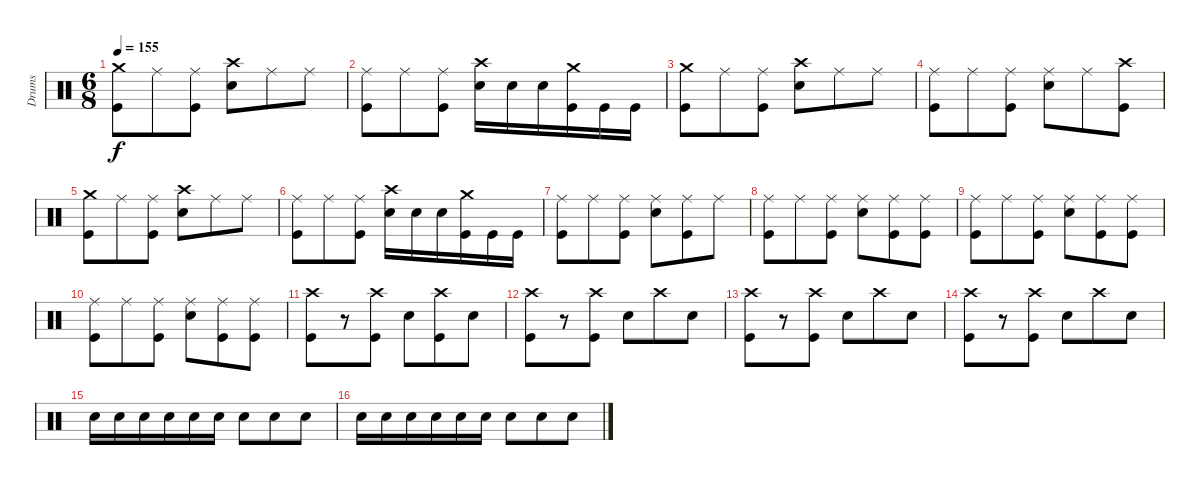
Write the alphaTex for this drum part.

\track ("Drums" "Drums") {instrument percussion}
\staff {score}
\articulation defaults
\ts (6 8)
\tempo 155
\clef neutral
\ks c
("Kick (hit)" "Crash medium (hit)").8{dy f} "Ride (middle)".8 ("Kick (hit)" "Ride (middle)").8 ("Snare (hit) 2" "Crash high (hit)").8 "Ride (middle)".8 "Ride (middle)".8 |
("Kick (hit)" "Ride (middle)").8 "Ride (middle)".8 ("Kick (hit)" "Ride (middle)").8 ("Snare (hit) 2" "Crash high (hit)").16 "Snare (hit) 2".16 "Snare (hit) 2".16 ("Kick (hit)" "Crash medium (hit)").16 "Kick (hit)".16 "Kick (hit)".16 |
("Kick (hit)" "Crash medium (hit)").8 "Ride (middle)".8 ("Kick (hit)" "Ride (middle)").8 ("Snare (hit) 2" "Crash high (hit)").8 "Ride (middle)".8 "Ride (middle)".8 |
("Kick (hit)" "Ride (middle)").8 "Ride (middle)".8 ("Kick (hit)" "Ride (middle)").8 ("Snare (hit) 2" "Ride (middle)").8 "Ride (middle)".8 ("Kick (hit)" "Crash high (hit)").8 |
("Kick (hit)" "Crash medium (hit)").8 "Ride (middle)".8 ("Kick (hit)" "Ride (middle)").8 ("Snare (hit) 2" "Crash high (hit)").8 "Ride (middle)".8 "Ride (middle)".8 |
("Kick (hit)" "Ride (middle)").8 "Ride (middle)".8 ("Kick (hit)" "Ride (middle)").8 ("Snare (hit) 2" "Crash high (hit)").16 "Snare (hit) 2".16 "Snare (hit) 2".16 ("Kick (hit)" "Crash medium (hit)").16 "Kick (hit)".16 "Kick (hit)".16 |
("Kick (hit)" "Ride (middle)").8 "Ride (middle)".8 ("Kick (hit)" "Ride (middle)").8 ("Snare (hit) 2" "Ride (middle)").8 ("Kick (hit)" "Ride (middle)").8 "Ride (middle)".8 |
("Kick (hit)" "Ride (middle)").8 "Ride (middle)".8 ("Kick (hit)" "Ride (middle)").8 ("Snare (hit) 2" "Ride (middle)").8 ("Kick (hit)" "Ride (middle)").8 ("Kick (hit)" "Ride (middle)").8 |
("Kick (hit)" "Ride (middle)").8 "Ride (middle)".8 ("Kick (hit)" "Ride (middle)").8 ("Snare (hit) 2" "Ride (middle)").8 ("Kick (hit)" "Ride (middle)").8 ("Kick (hit)" "Ride (middle)").8 |
("Kick (hit)" "Ride (middle)").8 "Ride (middle)".8 ("Kick (hit)" "Ride (middle)").8 ("Snare (hit) 2" "Ride (middle)").8 ("Kick (hit)" "Ride (middle)").8 ("Kick (hit)" "Ride (middle)").8 |
("Kick (hit)" "Crash high (hit)").8 r.8 ("Kick (hit)" "Crash high (hit)").8 "Snare (hit) 2".8 ("Kick (hit)" "Crash high (hit)").8 "Snare (hit) 2".8 |
("Kick (hit)" "Crash high (hit)").8 r.8 ("Kick (hit)" "Crash high (hit)").8 "Snare (hit) 2".8 "Crash high (hit)".8 "Snare (hit) 2".8 |
("Kick (hit)" "Crash high (hit)").8 r.8 ("Kick (hit)" "Crash high (hit)").8 "Snare (hit) 2".8 "Crash high (hit)".8 "Snare (hit) 2".8 |
("Kick (hit)" "Crash high (hit)").8 r.8 ("Kick (hit)" "Crash high (hit)").8 "Snare (hit) 2".8 "Crash high (hit)".8 "Snare (hit) 2".8 |
"Snare (hit) 2".16{volume 11} "Snare (hit) 2".16 "Snare (hit) 2".16 "Snare (hit) 2".16 "Snare (hit) 2".16 "Snare (hit) 2".16 "Snare (hit) 2".8 "Snare (hit) 2".8 "Snare (hit) 2".8 |
"Snare (hit) 2".16 "Snare (hit) 2".16 "Snare (hit) 2".16 "Snare (hit) 2".16 "Snare (hit) 2".16 "Snare (hit) 2".16 "Snare (hit) 2".8 "Snare (hit) 2".8 "Snare (hit) 2".8
